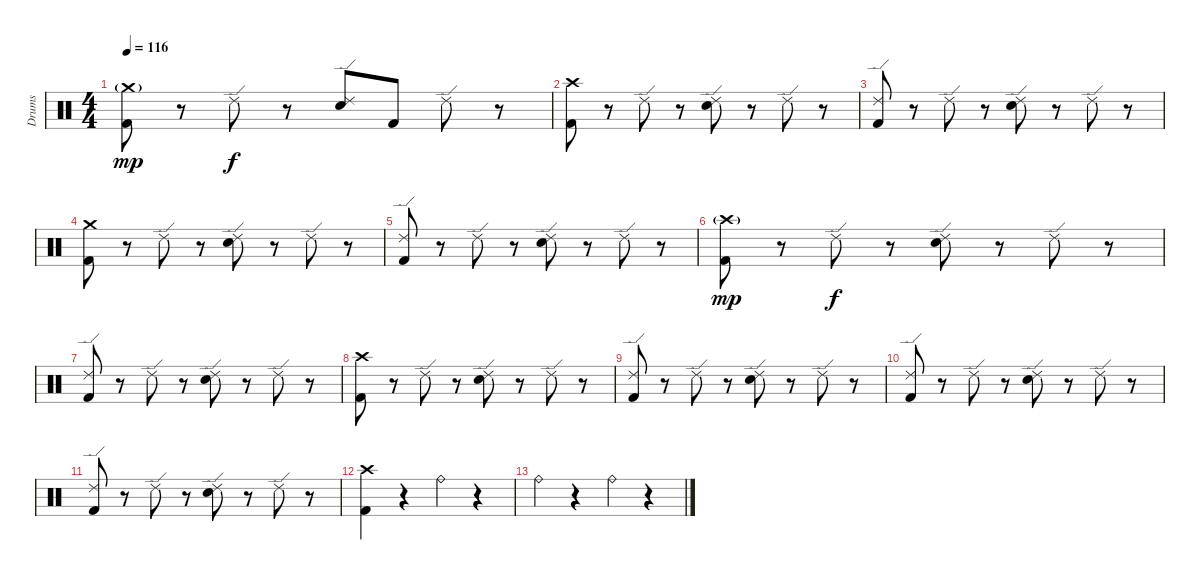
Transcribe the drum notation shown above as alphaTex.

\track ("Drums" "Drums") {instrument percussion}
\staff {score}
\articulation defaults
\ts (4 4)
\tempo 116
\clef neutral
\ks c
("Crash medium (hit)"{g} "Kick (hit) 2").8{dy mp} r.8 "Ride (edge) 2".8{dy f} r.8 ("Ride (edge) 2" "Snare (hit) 2").8 "Kick (hit) 2".8 "Ride (edge) 2".8 r.8 |
("Crash high (hit)" "Kick (hit) 2").8 r.8 "Ride (edge) 2".8 r.8 ("Ride (edge) 2" "Snare (hit) 2").8 r.8 "Ride (edge) 2".8 r.8 |
("Ride (edge) 2" "Kick (hit) 2").8 r.8 "Ride (edge) 2".8 r.8 ("Ride (edge) 2" "Snare (hit) 2").8 r.8 "Ride (edge) 2".8 r.8 |
("Crash medium (hit)" "Kick (hit) 2").8 r.8 "Ride (edge) 2".8 r.8 ("Ride (edge) 2" "Snare (hit) 2").8 r.8 "Ride (edge) 2".8 r.8 |
("Ride (edge) 2" "Kick (hit) 2").8 r.8 "Ride (edge) 2".8 r.8 ("Ride (edge) 2" "Snare (hit) 2").8 r.8 "Ride (edge) 2".8 r.8 |
("Crash high (hit)"{g} "Kick (hit) 2").8{dy mp} r.8 "Ride (edge) 2".8{dy f} r.8 ("Ride (edge) 2" "Snare (hit) 2").8 r.8 "Ride (edge) 2".8 r.8 |
("Ride (edge) 2" "Kick (hit) 2").8 r.8 "Ride (edge) 2".8 r.8 ("Ride (edge) 2" "Snare (hit) 2").8 r.8 "Ride (edge) 2".8 r.8 |
("Crash high (hit)" "Kick (hit) 2").8 r.8 "Ride (edge) 2".8 r.8 ("Ride (edge) 2" "Snare (hit) 2").8 r.8 "Ride (edge) 2".8 r.8 |
("Ride (edge) 2" "Kick (hit) 2").8 r.8 "Ride (edge) 2".8 r.8 ("Ride (edge) 2" "Snare (hit) 2").8 r.8 "Ride (edge) 2".8 r.8 |
("Ride (edge) 2" "Kick (hit) 2").8 r.8 "Ride (edge) 2".8 r.8 ("Ride (edge) 2" "Snare (hit) 2").8 r.8 "Ride (edge) 2".8 r.8 |
("Ride (edge) 2" "Kick (hit) 2").8 r.8 "Ride (edge) 2".8 r.8 ("Ride (edge) 2" "Snare (hit) 2").8 r.8 "Ride (edge) 2".8 r.8 |
("Crash high (hit)" "Kick (hit) 2").4 r.4 "Ride (bell)".4 r.4 |
"Ride (bell)".4 r.4 "Ride (bell)".4 r.4
